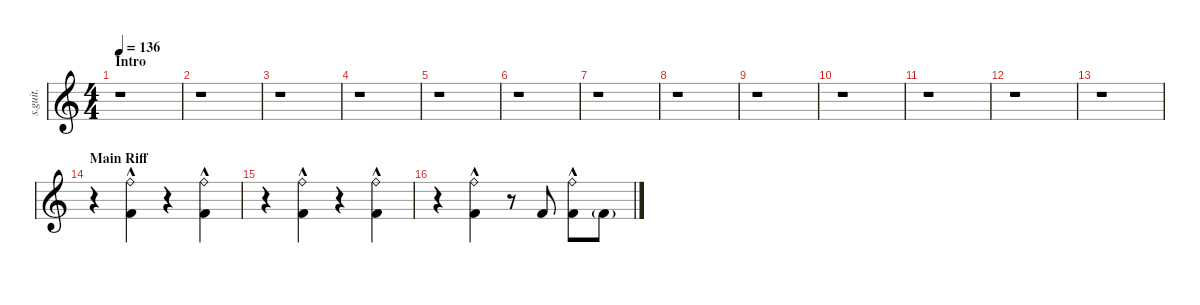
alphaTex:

\defaultSystemsLayout 4
\hideDynamics
\bracketExtendMode nobrackets
\track ("Chris Fehn" "s.guit.") {instrument percussion}
\staff {score}
\articulation defaults
\ts (4 4)
\beaming (8 2 2 2 2)
\section ("" "Intro")
\tempo 136
\clef g2
\ks c
r.1{dy fff} |
r.1 |
r.1 |
r.1 |
r.1 |
r.1 |
r.1 |
r.1 |
r.1 |
r.1 |
r.1 |
r.1 |
r.1 |
\section ("" "Main Riff")
r.4 ("Ride (bell)"{hac} "Kick (hit) 2"{hac}).4{lyrics (0 "") lyrics (1 "") lyrics (2 "") lyrics (3 "") lyrics (4 "")} r.4 ("Ride (bell)"{hac} "Kick (hit) 2"{hac}).4{lyrics (0 "") lyrics (1 "") lyrics (2 "") lyrics (3 "") lyrics (4 "")} |
r.4 ("Ride (bell)"{hac} "Kick (hit) 2"{hac}).4{lyrics (0 "") lyrics (1 "") lyrics (2 "") lyrics (3 "") lyrics (4 "")} r.4 ("Ride (bell)"{hac} "Kick (hit) 2"{hac}).4{lyrics (0 "") lyrics (1 "") lyrics (2 "") lyrics (3 "") lyrics (4 "")} |
r.4 ("Ride (bell)"{hac} "Kick (hit) 2"{hac}).4{lyrics (0 "") lyrics (1 "") lyrics (2 "") lyrics (3 "") lyrics (4 "")} r.8 "Kick (hit) 2".8{lyrics (0 "") lyrics (1 "") lyrics (2 "") lyrics (3 "") lyrics (4 "")} ("Ride (bell)"{hac} "Kick (hit) 2"{hac}).8{lyrics (0 "") lyrics (1 "") lyrics (2 "") lyrics (3 "") lyrics (4 "")} "Kick (hit) 2"{g}.8{lyrics (0 "") lyrics (1 "") lyrics (2 "") lyrics (3 "") lyrics (4 "")}
